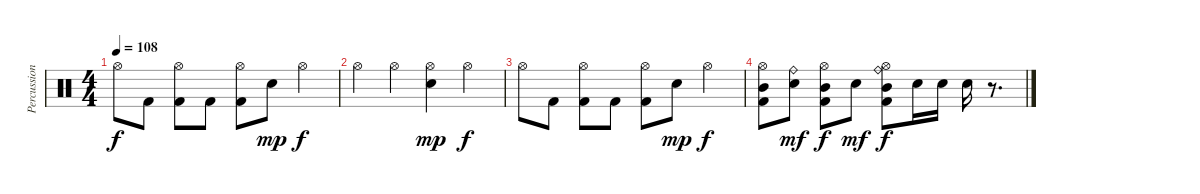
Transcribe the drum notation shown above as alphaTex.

\track ("Percussion" "Percussion") {instrument percussion}
\staff {score}
\articulation defaults
\ts (4 4)
\tempo 108
\clef neutral
\ks c "Hi-Hat (open)".8{dy f} "Kick (hit) 2".8
("Hi-Hat (open)" "Kick (hit) 2").8 "Kick (hit) 2".8 ("Hi-Hat (open)" "Kick (hit) 2").8 "Snare (hit) 2".8{dy mp} "Hi-Hat (open)".4{dy f} |
"Hi-Hat (open)".4 "Hi-Hat (open)".4 ("Hi-Hat (open)" "Snare (hit) 2").4{dy mp} "Hi-Hat (open)".4{dy f} |
"Hi-Hat (open)".8 "Kick (hit) 2".8 ("Hi-Hat (open)" "Kick (hit) 2").8 "Kick (hit) 2".8 ("Hi-Hat (open)" "Kick (hit) 2").8 "Snare (hit) 2".8{dy mp} "Hi-Hat (open)".4{dy f} |
("Hi-Hat (open)" "Mid Tom (hit)" "Kick (hit) 2").8 ("Ride (bell)" "Snare (hit) 2").8{dy mf} ("Hi-Hat (open)" "Mid Tom (hit)" "Kick (hit) 2").8{dy f} "Snare (hit) 2".8{dy mf} ("Hi-Hat (open)" "Ride (bell)" "Mid Tom (hit)" "Kick (hit) 2").8{dy f} "Snare (hit) 2".16 "Snare (hit) 2".16 "Snare (hit) 2".16 r.8{d}
